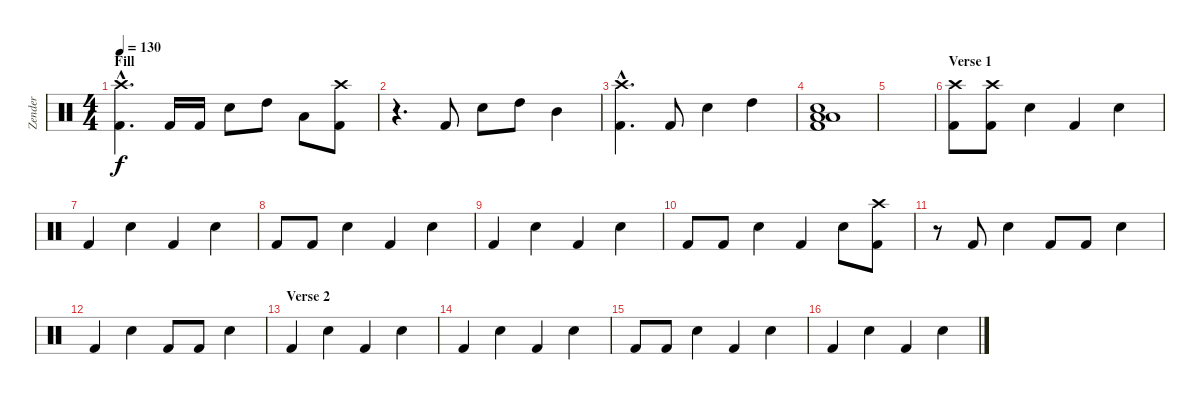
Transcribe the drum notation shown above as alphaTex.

\track ("Zender" "Zender") {instrument percussion}
\staff {score}
\articulation defaults
\ts (4 4)
\section ("" "Fill")
\tempo 130
\clef neutral
\ks c
("Crash high (hit)"{hac} "Kick (hit) 2"{hac}).4{d dy f} "Kick (hit) 2".16 "Kick (hit) 2".16 "Electric Snare (hit)".8 "High Tom (hit)".8 "Low Tom (hit)".8 ("Crash high (hit)" "Kick (hit) 2").8 |
r.4{d} "Kick (hit) 2".8 "Electric Snare (hit)".8 "High Tom (hit)".8 "Mid Tom (hit)".4 |
("Crash high (hit)"{hac} "Kick (hit) 2"{hac}).4{d} "Kick (hit) 2".8 "Electric Snare (hit)".4 "High Tom (hit)".4 |
("Electric Snare (hit)" "Low Floor Tom (hit)" "Low Floor Tom (hit)" "Kick (hit) 2").1 |
|
\section ("" "Verse 1")
("Crash high (hit)" "Kick (hit) 2").8 ("Crash high (hit)" "Kick (hit) 2").8 "Electric Snare (hit)".4 "Kick (hit) 2".4 "Electric Snare (hit)".4 |
"Kick (hit) 2".4 "Electric Snare (hit)".4 "Kick (hit) 2".4 "Electric Snare (hit)".4 |
"Kick (hit) 2".8 "Kick (hit) 2".8 "Electric Snare (hit)".4 "Kick (hit) 2".4 "Electric Snare (hit)".4 |
"Kick (hit) 2".4 "Electric Snare (hit)".4 "Kick (hit) 2".4 "Electric Snare (hit)".4 |
"Kick (hit) 2".8 "Kick (hit) 2".8 "Electric Snare (hit)".4 "Kick (hit) 2".4 "Electric Snare (hit)".8 ("Crash high (hit)" "Kick (hit) 2").8 |
r.8 "Kick (hit) 2".8 "Electric Snare (hit)".4 "Kick (hit) 2".8 "Kick (hit) 2".8 "Electric Snare (hit)".4 |
"Kick (hit) 2".4 "Electric Snare (hit)".4 "Kick (hit) 2".8 "Kick (hit) 2".8 "Electric Snare (hit)".4 |
\section ("" "Verse 2")
"Kick (hit) 2".4 "Electric Snare (hit)".4 "Kick (hit) 2".4 "Electric Snare (hit)".4 |
"Kick (hit) 2".4 "Electric Snare (hit)".4 "Kick (hit) 2".4 "Electric Snare (hit)".4 |
"Kick (hit) 2".8 "Kick (hit) 2".8 "Electric Snare (hit)".4 "Kick (hit) 2".4 "Electric Snare (hit)".4 |
"Kick (hit) 2".4 "Electric Snare (hit)".4 "Kick (hit) 2".4 "Electric Snare (hit)".4
